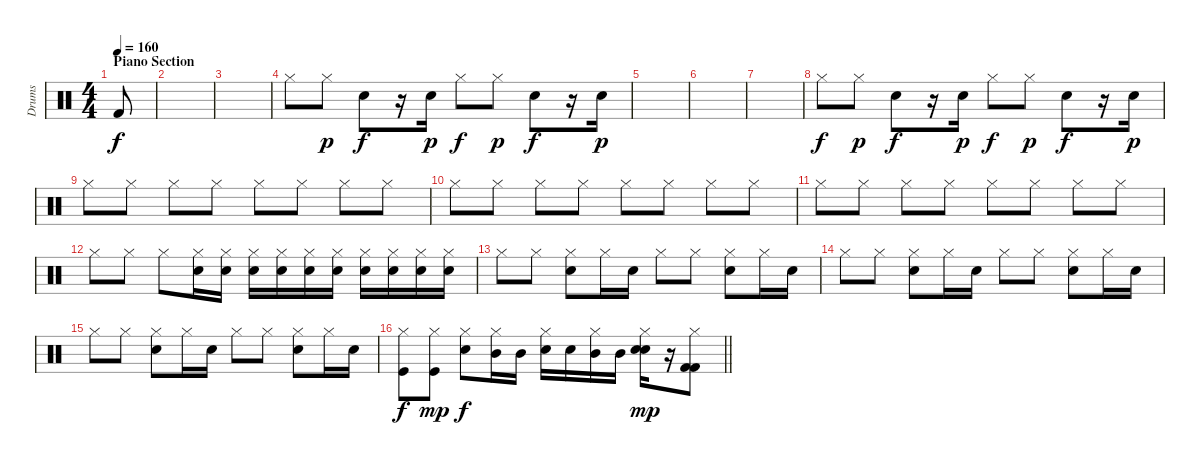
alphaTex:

\track ("Drums " "Drums ") {instrument percussion}
\staff {score}
\articulation defaults
\ts (4 4)
\section ("" "Piano Section")
\tempo 160
\clef neutral
\ks c "Kick (hit) 2".8{dy f}
|
|
|
"Hi-Hat (closed)".8 "Hi-Hat (closed)".8{dy p} "Electric Snare (hit)".8{dy f} r.16 "Electric Snare (hit)".16{dy p} "Hi-Hat (closed)".8{dy f} "Hi-Hat (closed)".8{dy p} "Electric Snare (hit)".8{dy f} r.16 "Electric Snare (hit)".16{dy p} |
|
|
|
"Hi-Hat (closed)".8{dy f} "Hi-Hat (closed)".8{dy p} "Electric Snare (hit)".8{dy f} r.16 "Electric Snare (hit)".16{dy p} "Hi-Hat (closed)".8{dy f} "Hi-Hat (closed)".8{dy p} "Electric Snare (hit)".8{dy f} r.16 "Electric Snare (hit)".16{dy p} |
"Hi-Hat (closed)".8 "Hi-Hat (closed)".8 "Hi-Hat (closed)".8 "Hi-Hat (closed)".8 "Hi-Hat (closed)".8 "Hi-Hat (closed)".8 "Hi-Hat (closed)".8 "Hi-Hat (closed)".8 |
"Hi-Hat (closed)".8 "Hi-Hat (closed)".8 "Hi-Hat (closed)".8 "Hi-Hat (closed)".8 "Hi-Hat (closed)".8 "Hi-Hat (closed)".8 "Hi-Hat (closed)".8 "Hi-Hat (closed)".8 |
"Hi-Hat (closed)".8 "Hi-Hat (closed)".8 "Hi-Hat (closed)".8 "Hi-Hat (closed)".8 "Hi-Hat (closed)".8 "Hi-Hat (closed)".8 "Hi-Hat (closed)".8 "Hi-Hat (closed)".8 |
"Hi-Hat (closed)".8 "Hi-Hat (closed)".8 "Hi-Hat (closed)".8 ("Electric Snare (hit)" "Hi-Hat (closed)").16 ("Electric Snare (hit)" "Hi-Hat (closed)").16 ("Electric Snare (hit)" "Hi-Hat (closed)").16 ("Electric Snare (hit)" "Hi-Hat (closed)").16 ("Electric Snare (hit)" "Hi-Hat (closed)").16 ("Electric Snare (hit)" "Hi-Hat (closed)").16 ("Electric Snare (hit)" "Hi-Hat (closed)").16 ("Electric Snare (hit)" "Hi-Hat (closed)").16 ("Electric Snare (hit)" "Hi-Hat (closed)").16 ("Electric Snare (hit)" "Hi-Hat (closed)").16 |
"Hi-Hat (closed)".8 "Hi-Hat (closed)".8 ("Electric Snare (hit)" "Hi-Hat (closed)").8 "Hi-Hat (closed)".16 "Electric Snare (hit)".16 "Hi-Hat (closed)".8 "Hi-Hat (closed)".8 ("Electric Snare (hit)" "Hi-Hat (closed)").8 "Hi-Hat (closed)".16 "Electric Snare (hit)".16 |
"Hi-Hat (closed)".8 "Hi-Hat (closed)".8 ("Electric Snare (hit)" "Hi-Hat (closed)").8 "Hi-Hat (closed)".16 "Electric Snare (hit)".16 "Hi-Hat (closed)".8 "Hi-Hat (closed)".8 ("Electric Snare (hit)" "Hi-Hat (closed)").8 "Hi-Hat (closed)".16 "Electric Snare (hit)".16 |
"Hi-Hat (closed)".8 "Hi-Hat (closed)".8 ("Electric Snare (hit)" "Hi-Hat (closed)").8 "Hi-Hat (closed)".16 "Electric Snare (hit)".16 "Hi-Hat (closed)".8 "Hi-Hat (closed)".8 ("Electric Snare (hit)" "Hi-Hat (closed)").8 "Hi-Hat (closed)".16 "Electric Snare (hit)".16 |
\barLineRight lightlight
("Kick (hit)" "Hi-Hat (closed)").8{dy f} ("Kick (hit)" "Hi-Hat (closed)").8{dy mp} ("Electric Snare (hit)" "Hi-Hat (closed)").8{dy f} ("Mid Tom (hit)" "Hi-Hat (closed)").16 "Mid Tom (hit)".16 ("Snare (hit) 2" "Hi-Hat (closed)").16 "Snare (hit) 2".16 ("Mid Tom (hit)" "Hi-Hat (closed)").16 "Mid Tom (hit)".16 ("Snare (hit) 2" "Snare (hit) 2" "Hi-Hat (closed)").16{dy mp} r.16 ("Kick (hit) 2" "Kick (hit) 2" "Hi-Hat (closed)").8
